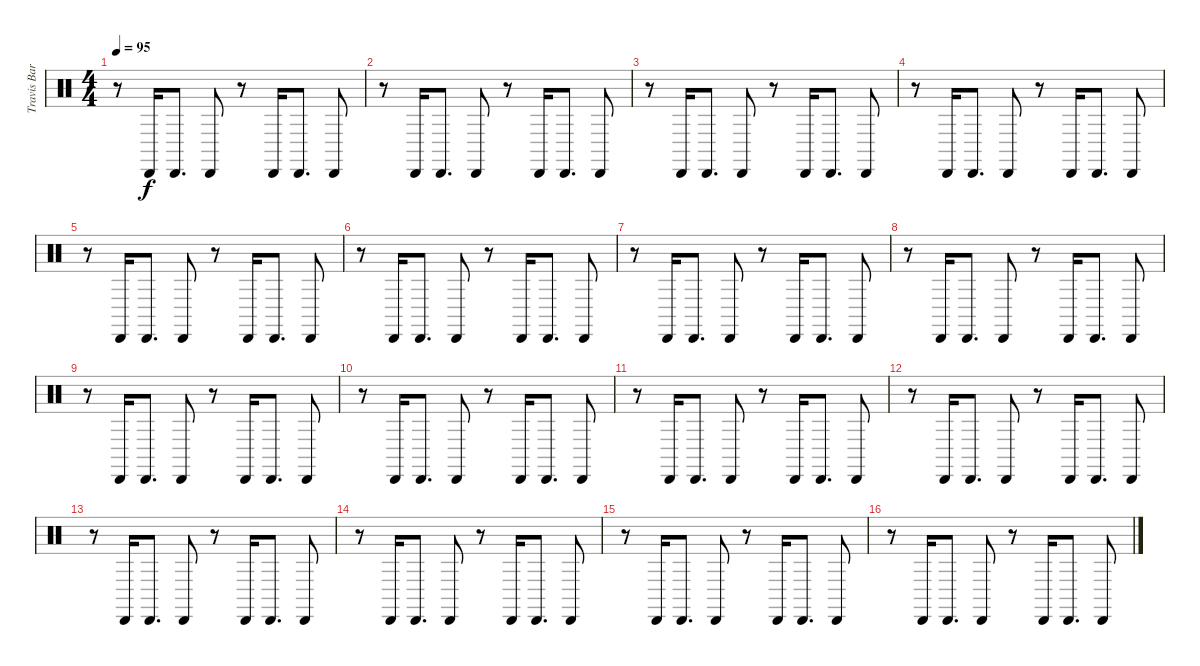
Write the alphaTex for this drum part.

\track ("Travis Barker - Drums Effects" "Travis Bar") {instrument percussion}
\staff {score}
\articulation defaults
\ts (4 4)
\tempo 95
\clef neutral
\ks c
r.8{dy f} "Cabasa (hit)".16 "Cabasa (hit)".8{d} "Cabasa (hit)".8 r.8 "Cabasa (hit)".16 "Cabasa (hit)".8{d} "Cabasa (hit)".8 |
r.8 "Cabasa (hit)".16 "Cabasa (hit)".8{d} "Cabasa (hit)".8 r.8 "Cabasa (hit)".16 "Cabasa (hit)".8{d} "Cabasa (hit)".8 |
r.8 "Cabasa (hit)".16 "Cabasa (hit)".8{d} "Cabasa (hit)".8 r.8 "Cabasa (hit)".16 "Cabasa (hit)".8{d} "Cabasa (hit)".8 |
r.8 "Cabasa (hit)".16 "Cabasa (hit)".8{d} "Cabasa (hit)".8 r.8 "Cabasa (hit)".16 "Cabasa (hit)".8{d} "Cabasa (hit)".8 |
r.8 "Cabasa (hit)".16 "Cabasa (hit)".8{d} "Cabasa (hit)".8 r.8 "Cabasa (hit)".16 "Cabasa (hit)".8{d} "Cabasa (hit)".8 |
r.8 "Cabasa (hit)".16 "Cabasa (hit)".8{d} "Cabasa (hit)".8 r.8 "Cabasa (hit)".16 "Cabasa (hit)".8{d} "Cabasa (hit)".8 |
r.8 "Cabasa (hit)".16 "Cabasa (hit)".8{d} "Cabasa (hit)".8 r.8 "Cabasa (hit)".16 "Cabasa (hit)".8{d} "Cabasa (hit)".8 |
r.8 "Cabasa (hit)".16 "Cabasa (hit)".8{d} "Cabasa (hit)".8 r.8 "Cabasa (hit)".16 "Cabasa (hit)".8{d} "Cabasa (hit)".8 |
r.8 "Cabasa (hit)".16 "Cabasa (hit)".8{d} "Cabasa (hit)".8 r.8 "Cabasa (hit)".16 "Cabasa (hit)".8{d} "Cabasa (hit)".8 |
r.8 "Cabasa (hit)".16 "Cabasa (hit)".8{d} "Cabasa (hit)".8 r.8 "Cabasa (hit)".16 "Cabasa (hit)".8{d} "Cabasa (hit)".8 |
r.8 "Cabasa (hit)".16 "Cabasa (hit)".8{d} "Cabasa (hit)".8 r.8 "Cabasa (hit)".16 "Cabasa (hit)".8{d} "Cabasa (hit)".8 |
r.8 "Cabasa (hit)".16 "Cabasa (hit)".8{d} "Cabasa (hit)".8 r.8 "Cabasa (hit)".16 "Cabasa (hit)".8{d} "Cabasa (hit)".8 |
r.8 "Cabasa (hit)".16 "Cabasa (hit)".8{d} "Cabasa (hit)".8 r.8 "Cabasa (hit)".16 "Cabasa (hit)".8{d} "Cabasa (hit)".8 |
r.8 "Cabasa (hit)".16 "Cabasa (hit)".8{d} "Cabasa (hit)".8 r.8 "Cabasa (hit)".16 "Cabasa (hit)".8{d} "Cabasa (hit)".8 |
r.8 "Cabasa (hit)".16 "Cabasa (hit)".8{d} "Cabasa (hit)".8 r.8 "Cabasa (hit)".16 "Cabasa (hit)".8{d} "Cabasa (hit)".8 |
r.8 "Cabasa (hit)".16 "Cabasa (hit)".8{d} "Cabasa (hit)".8 r.8 "Cabasa (hit)".16 "Cabasa (hit)".8{d} "Cabasa (hit)".8
